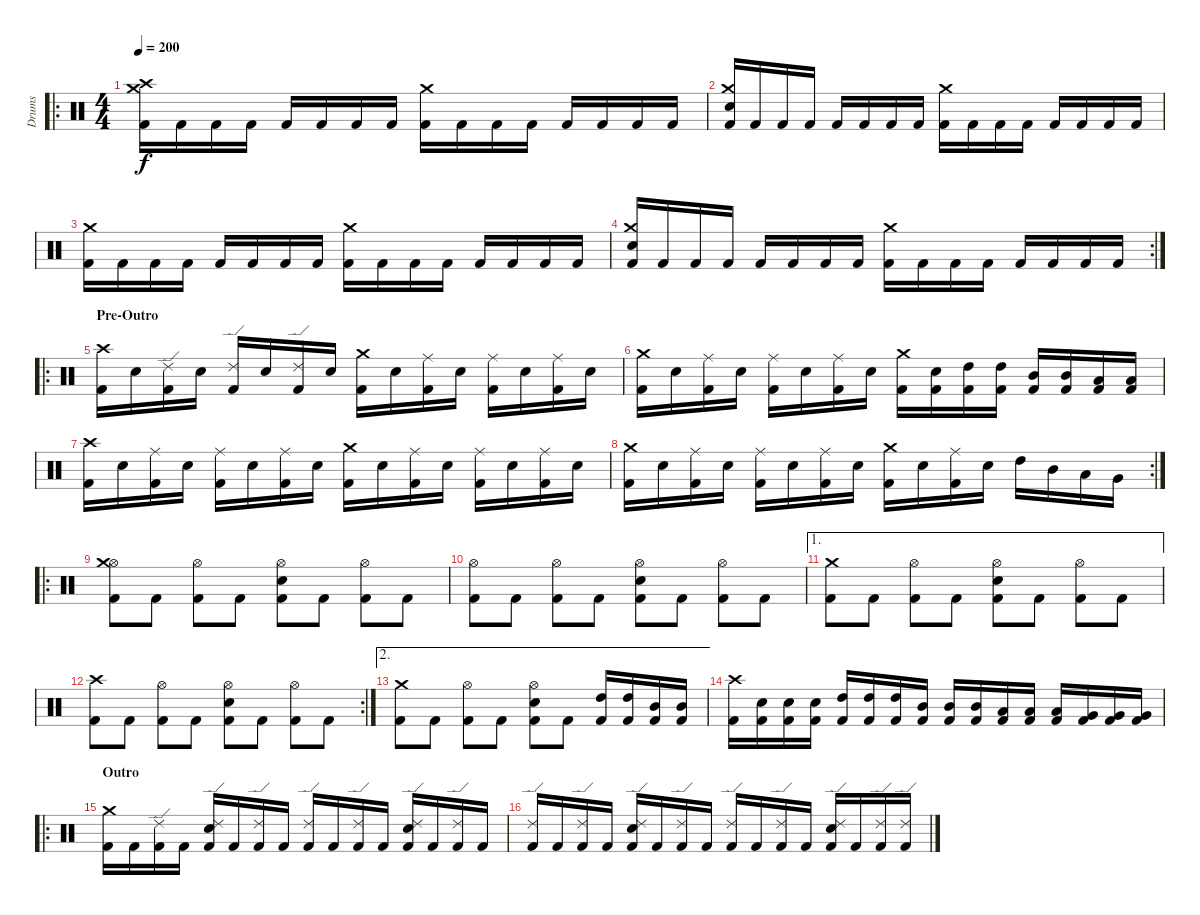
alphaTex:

\track ("Drums" "Drums") {instrument percussion}
\staff {score}
\articulation defaults
\ro
\ts (4 4)
\tempo 200
\clef neutral
\ks c
("Kick (hit) 2" "Crash medium (hit)" "Crash high (hit)").16{dy f} "Kick (hit) 2".16 "Kick (hit) 2".16 "Kick (hit) 2".16 "Kick (hit) 2".16 "Kick (hit) 2".16 "Kick (hit) 2".16 "Kick (hit) 2".16 ("Kick (hit) 2" "Crash medium (hit)").16 "Kick (hit) 2".16 "Kick (hit) 2".16 "Kick (hit) 2".16 "Kick (hit) 2".16 "Kick (hit) 2".16 "Kick (hit) 2".16 "Kick (hit) 2".16 |
("Kick (hit) 2" "Electric Snare (hit)" "Crash medium (hit)").16 "Kick (hit) 2".16 "Kick (hit) 2".16 "Kick (hit) 2".16 "Kick (hit) 2".16 "Kick (hit) 2".16 "Kick (hit) 2".16 "Kick (hit) 2".16 ("Kick (hit) 2" "Crash medium (hit)").16 "Kick (hit) 2".16 "Kick (hit) 2".16 "Kick (hit) 2".16 "Kick (hit) 2".16 "Kick (hit) 2".16 "Kick (hit) 2".16 "Kick (hit) 2".16 |
("Kick (hit) 2" "Crash medium (hit)").16 "Kick (hit) 2".16 "Kick (hit) 2".16 "Kick (hit) 2".16 "Kick (hit) 2".16 "Kick (hit) 2".16 "Kick (hit) 2".16 "Kick (hit) 2".16 ("Kick (hit) 2" "Crash medium (hit)").16 "Kick (hit) 2".16 "Kick (hit) 2".16 "Kick (hit) 2".16 "Kick (hit) 2".16 "Kick (hit) 2".16 "Kick (hit) 2".16 "Kick (hit) 2".16 |
\rc 2
("Kick (hit) 2" "Electric Snare (hit)" "Crash medium (hit)").16 "Kick (hit) 2".16 "Kick (hit) 2".16 "Kick (hit) 2".16 "Kick (hit) 2".16 "Kick (hit) 2".16 "Kick (hit) 2".16 "Kick (hit) 2".16 ("Kick (hit) 2" "Crash medium (hit)").16 "Kick (hit) 2".16 "Kick (hit) 2".16 "Kick (hit) 2".16 "Kick (hit) 2".16 "Kick (hit) 2".16 "Kick (hit) 2".16 "Kick (hit) 2".16 |
\ro
\section ("" "Pre-Outro")
("Kick (hit) 2" "Crash high (hit)").16 "Electric Snare (hit)".16 ("Kick (hit) 2" "Ride (edge) 2").16 "Electric Snare (hit)".16 ("Kick (hit) 2" "Ride (edge) 2").16 "Electric Snare (hit)".16 ("Kick (hit) 2" "Ride (edge) 2").16 "Electric Snare (hit)".16 ("Kick (hit) 2" "Crash medium (hit)").16 "Electric Snare (hit)".16 ("Kick (hit) 2" "Ride (middle)").16 "Electric Snare (hit)".16 ("Kick (hit) 2" "Ride (middle)").16 "Electric Snare (hit)".16 ("Kick (hit) 2" "Ride (middle)").16 "Electric Snare (hit)".16 |
("Kick (hit) 2" "Crash medium (hit)").16 "Electric Snare (hit)".16 ("Kick (hit) 2" "Ride (middle)").16 "Electric Snare (hit)".16 ("Kick (hit) 2" "Ride (middle)").16 "Electric Snare (hit)".16 ("Kick (hit) 2" "Ride (middle)").16 "Electric Snare (hit)".16 ("Kick (hit) 2" "Crash medium (hit)").16 ("Kick (hit) 2" "Electric Snare (hit)").16 ("Kick (hit) 2" "High Tom (hit)").16 ("Kick (hit) 2" "High Tom (hit)").16 ("Kick (hit) 2" "Mid Tom (hit)").16 ("Kick (hit) 2" "Mid Tom (hit)").16 ("Kick (hit) 2" "Low Tom (hit)").16 ("Kick (hit) 2" "Low Tom (hit)").16 |
("Kick (hit) 2" "Crash high (hit)").16 "Electric Snare (hit)".16 ("Kick (hit) 2" "Ride (middle)").16 "Electric Snare (hit)".16 ("Kick (hit) 2" "Ride (middle)").16 "Electric Snare (hit)".16 ("Kick (hit) 2" "Ride (middle)").16 "Electric Snare (hit)".16 ("Kick (hit) 2" "Crash medium (hit)").16 "Electric Snare (hit)".16 ("Kick (hit) 2" "Ride (middle)").16 "Electric Snare (hit)".16 ("Kick (hit) 2" "Ride (middle)").16 "Electric Snare (hit)".16 ("Kick (hit) 2" "Ride (middle)").16 "Electric Snare (hit)".16 |
\rc 2
("Kick (hit) 2" "Crash medium (hit)").16 "Electric Snare (hit)".16 ("Kick (hit) 2" "Ride (middle)").16 "Electric Snare (hit)".16 ("Kick (hit) 2" "Ride (middle)").16 "Electric Snare (hit)".16 ("Kick (hit) 2" "Ride (middle)").16 "Electric Snare (hit)".16 ("Kick (hit) 2" "Crash medium (hit)").16 "Electric Snare (hit)".16 ("Kick (hit) 2" "Ride (middle)").16 "Electric Snare (hit)".16 "High Tom (hit)".16 "Mid Tom (hit)".16 "Low Tom (hit)".16 "Very Low Tom (hit)".16 |
\ro
("Kick (hit) 2" "Hi-Hat (open)" "Crash medium (hit)").8 "Kick (hit) 2".8 ("Kick (hit) 2" "Hi-Hat (open)").8 "Kick (hit) 2".8 ("Kick (hit) 2" "Electric Snare (hit)" "Hi-Hat (open)").8 "Kick (hit) 2".8 ("Kick (hit) 2" "Hi-Hat (open)").8 "Kick (hit) 2".8 |
("Kick (hit) 2" "Hi-Hat (open)").8 "Kick (hit) 2".8 ("Kick (hit) 2" "Hi-Hat (open)").8 "Kick (hit) 2".8 ("Kick (hit) 2" "Electric Snare (hit)" "Hi-Hat (open)").8 "Kick (hit) 2".8 ("Kick (hit) 2" "Hi-Hat (open)").8 "Kick (hit) 2".8 |
\ae 1
("Kick (hit) 2" "Crash medium (hit)").8 "Kick (hit) 2".8 ("Kick (hit) 2" "Hi-Hat (open)").8 "Kick (hit) 2".8 ("Kick (hit) 2" "Electric Snare (hit)" "Hi-Hat (open)").8 "Kick (hit) 2".8 ("Kick (hit) 2" "Hi-Hat (open)").8 "Kick (hit) 2".8 |
\rc 2
("Kick (hit) 2" "Crash high (hit)").8 "Kick (hit) 2".8 ("Kick (hit) 2" "Hi-Hat (open)").8 "Kick (hit) 2".8 ("Kick (hit) 2" "Electric Snare (hit)" "Hi-Hat (open)").8 "Kick (hit) 2".8 ("Kick (hit) 2" "Hi-Hat (open)").8 "Kick (hit) 2".8 |
\ae 2
("Kick (hit) 2" "Crash medium (hit)").8 "Kick (hit) 2".8 ("Kick (hit) 2" "Hi-Hat (open)").8 "Kick (hit) 2".8 ("Kick (hit) 2" "Electric Snare (hit)" "Hi-Hat (open)").8 "Kick (hit) 2".8 ("Kick (hit) 2" "High Tom (hit)").16 ("Kick (hit) 2" "High Tom (hit)").16 ("Kick (hit) 2" "Mid Tom (hit)").16 ("Kick (hit) 2" "Mid Tom (hit)").16 |
("Kick (hit) 2" "Crash high (hit)").16 ("Kick (hit) 2" "Electric Snare (hit)").16 ("Kick (hit) 2" "Electric Snare (hit)").16 ("Kick (hit) 2" "Electric Snare (hit)").16 ("Kick (hit) 2" "High Tom (hit)").16 ("Kick (hit) 2" "High Tom (hit)").16 ("Kick (hit) 2" "High Tom (hit)").16 ("Kick (hit) 2" "Mid Tom (hit)").16 ("Kick (hit) 2" "Mid Tom (hit)").16 ("Kick (hit) 2" "Mid Tom (hit)").16 ("Kick (hit) 2" "Low Tom (hit)").16 ("Kick (hit) 2" "Low Tom (hit)").16 ("Kick (hit) 2" "Low Tom (hit)").16 ("Kick (hit) 2" "Very Low Tom (hit)").16 ("Kick (hit) 2" "Very Low Tom (hit)").16 ("Kick (hit) 2" "Very Low Tom (hit)").16 |
\ro
\section ("" "Outro")
("Kick (hit) 2" "Crash medium (hit)").16 "Kick (hit) 2".16 ("Kick (hit) 2" "Ride (edge) 2").16 "Kick (hit) 2".16 ("Kick (hit) 2" "Electric Snare (hit)" "Ride (edge) 2").16 "Kick (hit) 2".16 ("Kick (hit) 2" "Ride (edge) 2").16 "Kick (hit) 2".16 ("Kick (hit) 2" "Ride (edge) 2").16 "Kick (hit) 2".16 ("Kick (hit) 2" "Ride (edge) 2").16 "Kick (hit) 2".16 ("Kick (hit) 2" "Electric Snare (hit)" "Ride (edge) 2").16 "Kick (hit) 2".16 ("Kick (hit) 2" "Ride (edge) 2").16 "Kick (hit) 2".16 |
("Kick (hit) 2" "Ride (edge) 2").16 "Kick (hit) 2".16 ("Kick (hit) 2" "Ride (edge) 2").16 "Kick (hit) 2".16 ("Kick (hit) 2" "Electric Snare (hit)" "Ride (edge) 2").16 "Kick (hit) 2".16 ("Kick (hit) 2" "Ride (edge) 2").16 "Kick (hit) 2".16 ("Kick (hit) 2" "Ride (edge) 2").16 "Kick (hit) 2".16 ("Kick (hit) 2" "Ride (edge) 2").16 "Kick (hit) 2".16 ("Kick (hit) 2" "Electric Snare (hit)" "Ride (edge) 2").16 "Kick (hit) 2".16 ("Kick (hit) 2" "Ride (edge) 2").16 ("Kick (hit) 2" "Ride (edge) 2").16
